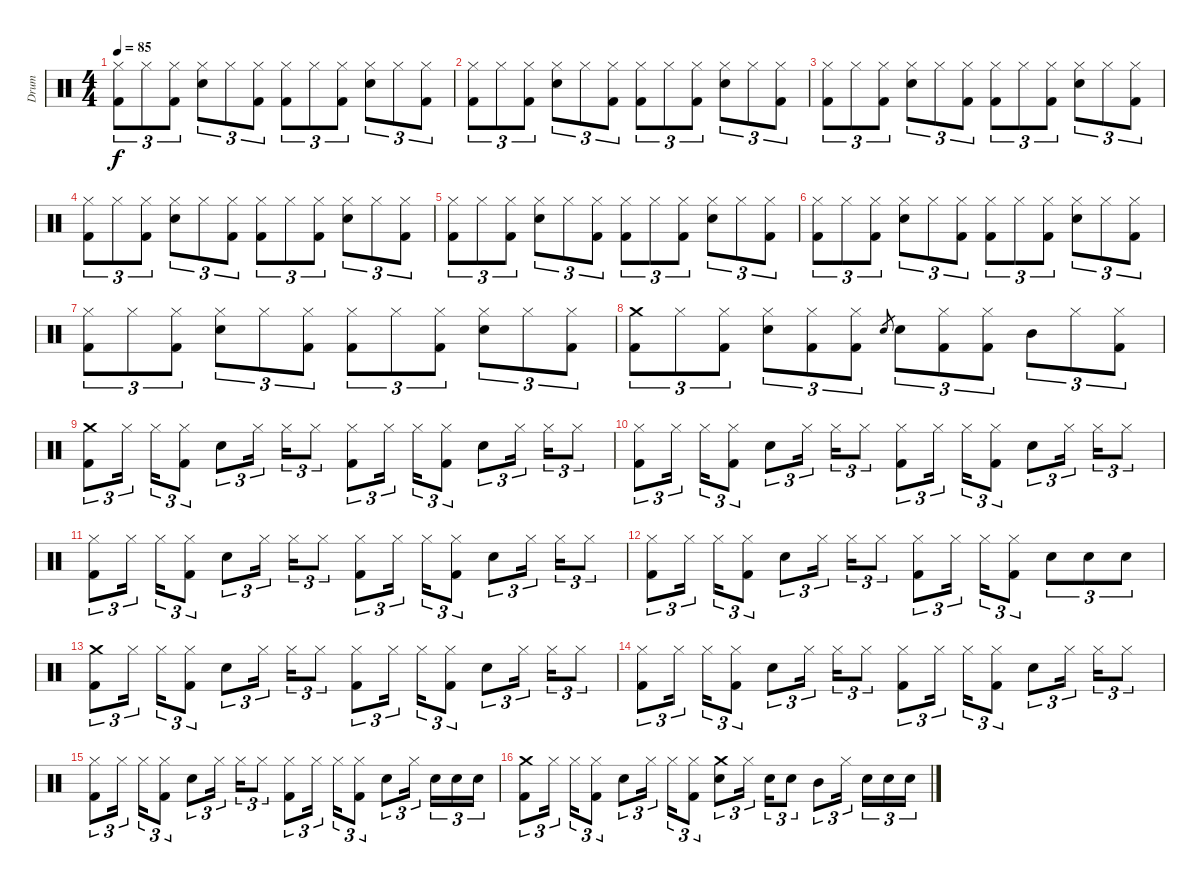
\track ("Drum" "Drum") {instrument percussion}
\staff {score}
\articulation defaults
\ts (4 4)
\tempo 85
\clef neutral
\ks c
("Hi-Hat (closed)" "Kick (hit) 2").8{tu (3 2) dy f} "Hi-Hat (closed)".8{tu (3 2)} ("Hi-Hat (closed)" "Kick (hit) 2").8{tu (3 2)} ("Hi-Hat (closed)" "Snare (hit) 2").8{tu (3 2)} "Hi-Hat (closed)".8{tu (3 2)} ("Hi-Hat (closed)" "Kick (hit) 2").8{tu (3 2)} ("Hi-Hat (closed)" "Kick (hit) 2").8{tu (3 2)} "Hi-Hat (closed)".8{tu (3 2)} ("Hi-Hat (closed)" "Kick (hit) 2").8{tu (3 2)} ("Hi-Hat (closed)" "Snare (hit) 2").8{tu (3 2)} "Hi-Hat (closed)".8{tu (3 2)} ("Hi-Hat (closed)" "Kick (hit) 2").8{tu (3 2)} |
("Hi-Hat (closed)" "Kick (hit) 2").8{tu (3 2)} "Hi-Hat (closed)".8{tu (3 2)} ("Hi-Hat (closed)" "Kick (hit) 2").8{tu (3 2)} ("Hi-Hat (closed)" "Snare (hit) 2").8{tu (3 2)} "Hi-Hat (closed)".8{tu (3 2)} ("Hi-Hat (closed)" "Kick (hit) 2").8{tu (3 2)} ("Hi-Hat (closed)" "Kick (hit) 2").8{tu (3 2)} "Hi-Hat (closed)".8{tu (3 2)} ("Hi-Hat (closed)" "Kick (hit) 2").8{tu (3 2)} ("Hi-Hat (closed)" "Snare (hit) 2").8{tu (3 2)} "Hi-Hat (closed)".8{tu (3 2)} ("Hi-Hat (closed)" "Kick (hit) 2").8{tu (3 2)} |
("Hi-Hat (closed)" "Kick (hit) 2").8{tu (3 2)} "Hi-Hat (closed)".8{tu (3 2)} ("Hi-Hat (closed)" "Kick (hit) 2").8{tu (3 2)} ("Hi-Hat (closed)" "Snare (hit) 2").8{tu (3 2)} "Hi-Hat (closed)".8{tu (3 2)} ("Hi-Hat (closed)" "Kick (hit) 2").8{tu (3 2)} ("Hi-Hat (closed)" "Kick (hit) 2").8{tu (3 2)} "Hi-Hat (closed)".8{tu (3 2)} ("Hi-Hat (closed)" "Kick (hit) 2").8{tu (3 2)} ("Hi-Hat (closed)" "Snare (hit) 2").8{tu (3 2)} "Hi-Hat (closed)".8{tu (3 2)} ("Hi-Hat (closed)" "Kick (hit) 2").8{tu (3 2)} |
("Hi-Hat (closed)" "Kick (hit) 2").8{tu (3 2)} "Hi-Hat (closed)".8{tu (3 2)} ("Hi-Hat (closed)" "Kick (hit) 2").8{tu (3 2)} ("Hi-Hat (closed)" "Snare (hit) 2").8{tu (3 2)} "Hi-Hat (closed)".8{tu (3 2)} ("Hi-Hat (closed)" "Kick (hit) 2").8{tu (3 2)} ("Hi-Hat (closed)" "Kick (hit) 2").8{tu (3 2)} "Hi-Hat (closed)".8{tu (3 2)} ("Hi-Hat (closed)" "Kick (hit) 2").8{tu (3 2)} ("Hi-Hat (closed)" "Snare (hit) 2").8{tu (3 2)} "Hi-Hat (closed)".8{tu (3 2)} ("Hi-Hat (closed)" "Kick (hit) 2").8{tu (3 2)} |
("Hi-Hat (closed)" "Kick (hit) 2").8{tu (3 2)} "Hi-Hat (closed)".8{tu (3 2)} ("Hi-Hat (closed)" "Kick (hit) 2").8{tu (3 2)} ("Hi-Hat (closed)" "Snare (hit) 2").8{tu (3 2)} "Hi-Hat (closed)".8{tu (3 2)} ("Hi-Hat (closed)" "Kick (hit) 2").8{tu (3 2)} ("Hi-Hat (closed)" "Kick (hit) 2").8{tu (3 2)} "Hi-Hat (closed)".8{tu (3 2)} ("Hi-Hat (closed)" "Kick (hit) 2").8{tu (3 2)} ("Hi-Hat (closed)" "Snare (hit) 2").8{tu (3 2)} "Hi-Hat (closed)".8{tu (3 2)} ("Hi-Hat (closed)" "Kick (hit) 2").8{tu (3 2)} |
("Hi-Hat (closed)" "Kick (hit) 2").8{tu (3 2)} "Hi-Hat (closed)".8{tu (3 2)} ("Hi-Hat (closed)" "Kick (hit) 2").8{tu (3 2)} ("Hi-Hat (closed)" "Snare (hit) 2").8{tu (3 2)} "Hi-Hat (closed)".8{tu (3 2)} ("Hi-Hat (closed)" "Kick (hit) 2").8{tu (3 2)} ("Hi-Hat (closed)" "Kick (hit) 2").8{tu (3 2)} "Hi-Hat (closed)".8{tu (3 2)} ("Hi-Hat (closed)" "Kick (hit) 2").8{tu (3 2)} ("Hi-Hat (closed)" "Snare (hit) 2").8{tu (3 2)} "Hi-Hat (closed)".8{tu (3 2)} ("Hi-Hat (closed)" "Kick (hit) 2").8{tu (3 2)} |
("Hi-Hat (closed)" "Kick (hit) 2").8{tu (3 2)} "Hi-Hat (closed)".8{tu (3 2)} ("Hi-Hat (closed)" "Kick (hit) 2").8{tu (3 2)} ("Hi-Hat (closed)" "Snare (hit) 2").8{tu (3 2)} "Hi-Hat (closed)".8{tu (3 2)} ("Hi-Hat (closed)" "Kick (hit) 2").8{tu (3 2)} ("Hi-Hat (closed)" "Kick (hit) 2").8{tu (3 2)} "Hi-Hat (closed)".8{tu (3 2)} ("Hi-Hat (closed)" "Kick (hit) 2").8{tu (3 2)} ("Hi-Hat (closed)" "Snare (hit) 2").8{tu (3 2)} "Hi-Hat (closed)".8{tu (3 2)} ("Hi-Hat (closed)" "Kick (hit) 2").8{tu (3 2)} |
("Crash medium (hit)" "Kick (hit) 2").8{tu (3 2)} "Hi-Hat (closed)".8{tu (3 2)} ("Hi-Hat (closed)" "Kick (hit) 2").8{tu (3 2)} ("Hi-Hat (closed)" "Snare (hit) 2").8{tu (3 2)} ("Hi-Hat (closed)" "Kick (hit) 2").8{tu (3 2)} ("Hi-Hat (closed)" "Kick (hit) 2").8{tu (3 2)} "Snare (hit) 2".8{gr} "Snare (hit) 2".8{tu (3 2)} ("Hi-Hat (closed)" "Kick (hit) 2").8{tu (3 2)} ("Hi-Hat (closed)" "Kick (hit) 2").8{tu (3 2)} "Mid Tom (hit)".8{tu (3 2)} "Hi-Hat (closed)".8{tu (3 2)} ("Hi-Hat (closed)" "Kick (hit) 2").8{tu (3 2)} |
("Crash medium (hit)" "Kick (hit) 2").8{tu (3 2)} "Hi-Hat (closed)".16{tu (3 2)} "Hi-Hat (closed)".16{tu (3 2)} ("Hi-Hat (closed)" "Kick (hit) 2").8{tu (3 2)} "Snare (hit) 2".8{tu (3 2)} "Hi-Hat (closed)".16{tu (3 2)} "Hi-Hat (closed)".16{tu (3 2)} "Hi-Hat (closed)".8{tu (3 2)} ("Hi-Hat (closed)" "Kick (hit) 2").8{tu (3 2)} "Hi-Hat (closed)".16{tu (3 2)} "Hi-Hat (closed)".16{tu (3 2)} ("Hi-Hat (closed)" "Kick (hit) 2").8{tu (3 2)} "Snare (hit) 2".8{tu (3 2)} "Hi-Hat (closed)".16{tu (3 2)} "Hi-Hat (closed)".16{tu (3 2)} "Hi-Hat (closed)".8{tu (3 2)} |
("Hi-Hat (closed)" "Kick (hit) 2").8{tu (3 2)} "Hi-Hat (closed)".16{tu (3 2)} "Hi-Hat (closed)".16{tu (3 2)} ("Hi-Hat (closed)" "Kick (hit) 2").8{tu (3 2)} "Snare (hit) 2".8{tu (3 2)} "Hi-Hat (closed)".16{tu (3 2)} "Hi-Hat (closed)".16{tu (3 2)} "Hi-Hat (closed)".8{tu (3 2)} ("Hi-Hat (closed)" "Kick (hit) 2").8{tu (3 2)} "Hi-Hat (closed)".16{tu (3 2)} "Hi-Hat (closed)".16{tu (3 2)} ("Hi-Hat (closed)" "Kick (hit) 2").8{tu (3 2)} "Snare (hit) 2".8{tu (3 2)} "Hi-Hat (closed)".16{tu (3 2)} "Hi-Hat (closed)".16{tu (3 2)} "Hi-Hat (closed)".8{tu (3 2)} |
("Hi-Hat (closed)" "Kick (hit) 2").8{tu (3 2)} "Hi-Hat (closed)".16{tu (3 2)} "Hi-Hat (closed)".16{tu (3 2)} ("Hi-Hat (closed)" "Kick (hit) 2").8{tu (3 2)} "Snare (hit) 2".8{tu (3 2)} "Hi-Hat (closed)".16{tu (3 2)} "Hi-Hat (closed)".16{tu (3 2)} "Hi-Hat (closed)".8{tu (3 2)} ("Hi-Hat (closed)" "Kick (hit) 2").8{tu (3 2)} "Hi-Hat (closed)".16{tu (3 2)} "Hi-Hat (closed)".16{tu (3 2)} ("Hi-Hat (closed)" "Kick (hit) 2").8{tu (3 2)} "Snare (hit) 2".8{tu (3 2)} "Hi-Hat (closed)".16{tu (3 2)} "Hi-Hat (closed)".16{tu (3 2)} "Hi-Hat (closed)".8{tu (3 2)} |
("Hi-Hat (closed)" "Kick (hit) 2").8{tu (3 2)} "Hi-Hat (closed)".16{tu (3 2)} "Hi-Hat (closed)".16{tu (3 2)} ("Hi-Hat (closed)" "Kick (hit) 2").8{tu (3 2)} "Snare (hit) 2".8{tu (3 2)} "Hi-Hat (closed)".16{tu (3 2)} "Hi-Hat (closed)".16{tu (3 2)} "Hi-Hat (closed)".8{tu (3 2)} ("Hi-Hat (closed)" "Kick (hit) 2").8{tu (3 2)} "Hi-Hat (closed)".16{tu (3 2)} "Hi-Hat (closed)".16{tu (3 2)} ("Hi-Hat (closed)" "Kick (hit) 2").8{tu (3 2)} "Snare (hit) 2".8{tu (3 2)} "Snare (hit) 2".8{tu (3 2)} "Snare (hit) 2".8{tu (3 2)} |
("Crash medium (hit)" "Kick (hit) 2").8{tu (3 2)} "Hi-Hat (closed)".16{tu (3 2)} "Hi-Hat (closed)".16{tu (3 2)} ("Hi-Hat (closed)" "Kick (hit) 2").8{tu (3 2)} "Snare (hit) 2".8{tu (3 2)} "Hi-Hat (closed)".16{tu (3 2)} "Hi-Hat (closed)".16{tu (3 2)} "Hi-Hat (closed)".8{tu (3 2)} ("Hi-Hat (closed)" "Kick (hit) 2").8{tu (3 2)} "Hi-Hat (closed)".16{tu (3 2)} "Hi-Hat (closed)".16{tu (3 2)} ("Hi-Hat (closed)" "Kick (hit) 2").8{tu (3 2)} "Snare (hit) 2".8{tu (3 2)} "Hi-Hat (closed)".16{tu (3 2)} "Hi-Hat (closed)".16{tu (3 2)} "Hi-Hat (closed)".8{tu (3 2)} |
("Hi-Hat (closed)" "Kick (hit) 2").8{tu (3 2)} "Hi-Hat (closed)".16{tu (3 2)} "Hi-Hat (closed)".16{tu (3 2)} ("Hi-Hat (closed)" "Kick (hit) 2").8{tu (3 2)} "Snare (hit) 2".8{tu (3 2)} "Hi-Hat (closed)".16{tu (3 2)} "Hi-Hat (closed)".16{tu (3 2)} "Hi-Hat (closed)".8{tu (3 2)} ("Hi-Hat (closed)" "Kick (hit) 2").8{tu (3 2)} "Hi-Hat (closed)".16{tu (3 2)} "Hi-Hat (closed)".16{tu (3 2)} ("Hi-Hat (closed)" "Kick (hit) 2").8{tu (3 2)} "Snare (hit) 2".8{tu (3 2)} "Hi-Hat (closed)".16{tu (3 2)} "Hi-Hat (closed)".16{tu (3 2)} "Hi-Hat (closed)".8{tu (3 2)} |
("Hi-Hat (closed)" "Kick (hit) 2").8{tu (3 2)} "Hi-Hat (closed)".16{tu (3 2)} "Hi-Hat (closed)".16{tu (3 2)} ("Hi-Hat (closed)" "Kick (hit) 2").8{tu (3 2)} "Snare (hit) 2".8{tu (3 2)} "Hi-Hat (closed)".16{tu (3 2)} "Hi-Hat (closed)".16{tu (3 2)} "Hi-Hat (closed)".8{tu (3 2)} ("Hi-Hat (closed)" "Kick (hit) 2").8{tu (3 2)} "Hi-Hat (closed)".16{tu (3 2)} "Hi-Hat (closed)".16{tu (3 2)} ("Hi-Hat (closed)" "Kick (hit) 2").8{tu (3 2)} "Snare (hit) 2".8{tu (3 2)} "Hi-Hat (closed)".16{tu (3 2)} "Snare (hit) 2".16{tu (3 2)} "Snare (hit) 2".16{tu (3 2)} "Snare (hit) 2".16{tu (3 2)} |
("Crash medium (hit)" "Kick (hit) 2").8{tu (3 2)} "Hi-Hat (closed)".16{tu (3 2)} "Hi-Hat (closed)".16{tu (3 2)} ("Hi-Hat (closed)" "Kick (hit) 2").8{tu (3 2)} "Snare (hit) 2".8{tu (3 2)} "Hi-Hat (closed)".16{tu (3 2)} "Hi-Hat (closed)".16{tu (3 2)} ("Hi-Hat (closed)" "Kick (hit) 2").8{tu (3 2)} ("Crash medium (hit)" "Snare (hit) 2").8{tu (3 2)} "Hi-Hat (closed)".16{tu (3 2)} "Snare (hit) 2".16{tu (3 2)} "Snare (hit) 2".8{tu (3 2)} "Mid Tom (hit)".8{tu (3 2)} "Hi-Hat (closed)".16{tu (3 2)} "Snare (hit) 2".16{tu (3 2)} "Snare (hit) 2".16{tu (3 2)} "Snare (hit) 2".16{tu (3 2)}
